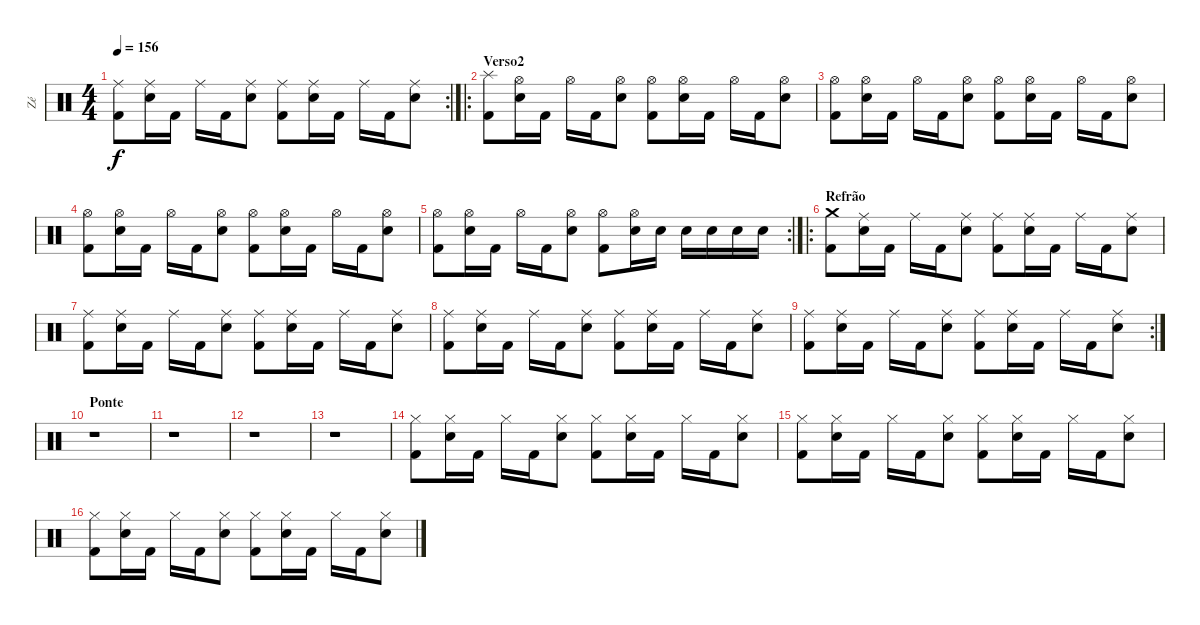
\track ("Zé" "Zé") {instrument percussion}
\staff {score}
\articulation defaults
\rc 2
\ts (4 4)
\tempo 156
\clef neutral
\ks c
("Ride (middle)" "Kick (hit) 2").8{dy f} ("Ride (middle)" "Snare (hit) 2").16 "Kick (hit) 2".16 "Ride (middle)".16 "Kick (hit) 2".16 ("Ride (middle)" "Snare (hit) 2").8 ("Ride (middle)" "Kick (hit) 2").8 ("Ride (middle)" "Snare (hit) 2").16 "Kick (hit) 2".16 "Ride (middle)".16 "Kick (hit) 2".16 ("Ride (middle)" "Snare (hit) 2").8 |
\ro
\section ("" "Verso2")
("Splash (hit)" "Kick (hit) 2").8 ("Hi-Hat (open)" "Snare (hit) 2").16 "Kick (hit) 2".16 "Hi-Hat (open)".16 "Kick (hit) 2".16 ("Hi-Hat (open)" "Snare (hit) 2").8 ("Hi-Hat (open)" "Kick (hit) 2").8 ("Hi-Hat (open)" "Snare (hit) 2").16 "Kick (hit) 2".16 "Hi-Hat (open)".16 "Kick (hit) 2".16 ("Hi-Hat (open)" "Snare (hit) 2").8 |
("Hi-Hat (open)" "Kick (hit) 2").8 ("Hi-Hat (open)" "Snare (hit) 2").16 "Kick (hit) 2".16 "Hi-Hat (open)".16 "Kick (hit) 2".16 ("Hi-Hat (open)" "Snare (hit) 2").8 ("Hi-Hat (open)" "Kick (hit) 2").8 ("Hi-Hat (open)" "Snare (hit) 2").16 "Kick (hit) 2".16 "Hi-Hat (open)".16 "Kick (hit) 2".16 ("Hi-Hat (open)" "Snare (hit) 2").8 |
("Hi-Hat (open)" "Kick (hit) 2").8 ("Hi-Hat (open)" "Snare (hit) 2").16 "Kick (hit) 2".16 "Hi-Hat (open)".16 "Kick (hit) 2".16 ("Hi-Hat (open)" "Snare (hit) 2").8 ("Hi-Hat (open)" "Kick (hit) 2").8 ("Hi-Hat (open)" "Snare (hit) 2").16 "Kick (hit) 2".16 "Hi-Hat (open)".16 "Kick (hit) 2".16 ("Hi-Hat (open)" "Snare (hit) 2").8 |
\rc 2
("Hi-Hat (open)" "Kick (hit) 2").8 ("Hi-Hat (open)" "Snare (hit) 2").16 "Kick (hit) 2".16 "Hi-Hat (open)".16 "Kick (hit) 2".16 ("Hi-Hat (open)" "Snare (hit) 2").8 ("Hi-Hat (open)" "Kick (hit) 2").8 ("Hi-Hat (open)" "Snare (hit) 2").16 "Snare (hit) 2".16 "Snare (hit) 2".16 "Snare (hit) 2".16 "Snare (hit) 2".16 "Snare (hit) 2".16 |
\ro
\section ("" "Refrão")
("Crash medium (hit)" "Kick (hit) 2").8 ("Ride (middle)" "Snare (hit) 2").16 "Kick (hit) 2".16 "Ride (middle)".16 "Kick (hit) 2".16 ("Ride (middle)" "Snare (hit) 2").8 ("Ride (middle)" "Kick (hit) 2").8 ("Ride (middle)" "Snare (hit) 2").16 "Kick (hit) 2".16 "Ride (middle)".16 "Kick (hit) 2".16 ("Ride (middle)" "Snare (hit) 2").8 |
("Ride (middle)" "Kick (hit) 2").8 ("Ride (middle)" "Snare (hit) 2").16 "Kick (hit) 2".16 "Ride (middle)".16 "Kick (hit) 2".16 ("Ride (middle)" "Snare (hit) 2").8 ("Ride (middle)" "Kick (hit) 2").8 ("Ride (middle)" "Snare (hit) 2").16 "Kick (hit) 2".16 "Ride (middle)".16 "Kick (hit) 2".16 ("Ride (middle)" "Snare (hit) 2").8 |
("Ride (middle)" "Kick (hit) 2").8 ("Ride (middle)" "Snare (hit) 2").16 "Kick (hit) 2".16 "Ride (middle)".16 "Kick (hit) 2".16 ("Ride (middle)" "Snare (hit) 2").8 ("Ride (middle)" "Kick (hit) 2").8 ("Ride (middle)" "Snare (hit) 2").16 "Kick (hit) 2".16 "Ride (middle)".16 "Kick (hit) 2".16 ("Ride (middle)" "Snare (hit) 2").8 |
\rc 2
("Ride (middle)" "Kick (hit) 2").8 ("Ride (middle)" "Snare (hit) 2").16 "Kick (hit) 2".16 "Ride (middle)".16 "Kick (hit) 2".16 ("Ride (middle)" "Snare (hit) 2").8 ("Ride (middle)" "Kick (hit) 2").8 ("Ride (middle)" "Snare (hit) 2").16 "Kick (hit) 2".16 "Ride (middle)".16 "Kick (hit) 2".16 ("Ride (middle)" "Snare (hit) 2").8 |
\section ("" "Ponte")
r.1 |
r.1 |
r.1 |
r.1 |
("Hi-Hat (closed)" "Kick (hit) 2").8 ("Hi-Hat (closed)" "Snare (hit) 2").16 "Kick (hit) 2".16 "Hi-Hat (closed)".16 "Kick (hit) 2".16 ("Hi-Hat (closed)" "Snare (hit) 2").8 ("Hi-Hat (closed)" "Kick (hit) 2").8 ("Hi-Hat (closed)" "Snare (hit) 2").16 "Kick (hit) 2".16 "Hi-Hat (closed)".16 "Kick (hit) 2".16 ("Hi-Hat (closed)" "Snare (hit) 2").8 |
("Hi-Hat (closed)" "Kick (hit) 2").8 ("Hi-Hat (closed)" "Snare (hit) 2").16 "Kick (hit) 2".16 "Hi-Hat (closed)".16 "Kick (hit) 2".16 ("Hi-Hat (closed)" "Snare (hit) 2").8 ("Hi-Hat (closed)" "Kick (hit) 2").8 ("Hi-Hat (closed)" "Snare (hit) 2").16 "Kick (hit) 2".16 "Hi-Hat (closed)".16 "Kick (hit) 2".16 ("Hi-Hat (closed)" "Snare (hit) 2").8 |
("Hi-Hat (closed)" "Kick (hit) 2").8 ("Hi-Hat (closed)" "Snare (hit) 2").16 "Kick (hit) 2".16 "Hi-Hat (closed)".16 "Kick (hit) 2".16 ("Hi-Hat (closed)" "Snare (hit) 2").8 ("Hi-Hat (closed)" "Kick (hit) 2").8 ("Hi-Hat (closed)" "Snare (hit) 2").16 "Kick (hit) 2".16 "Hi-Hat (closed)".16 "Kick (hit) 2".16 ("Hi-Hat (closed)" "Snare (hit) 2").8
